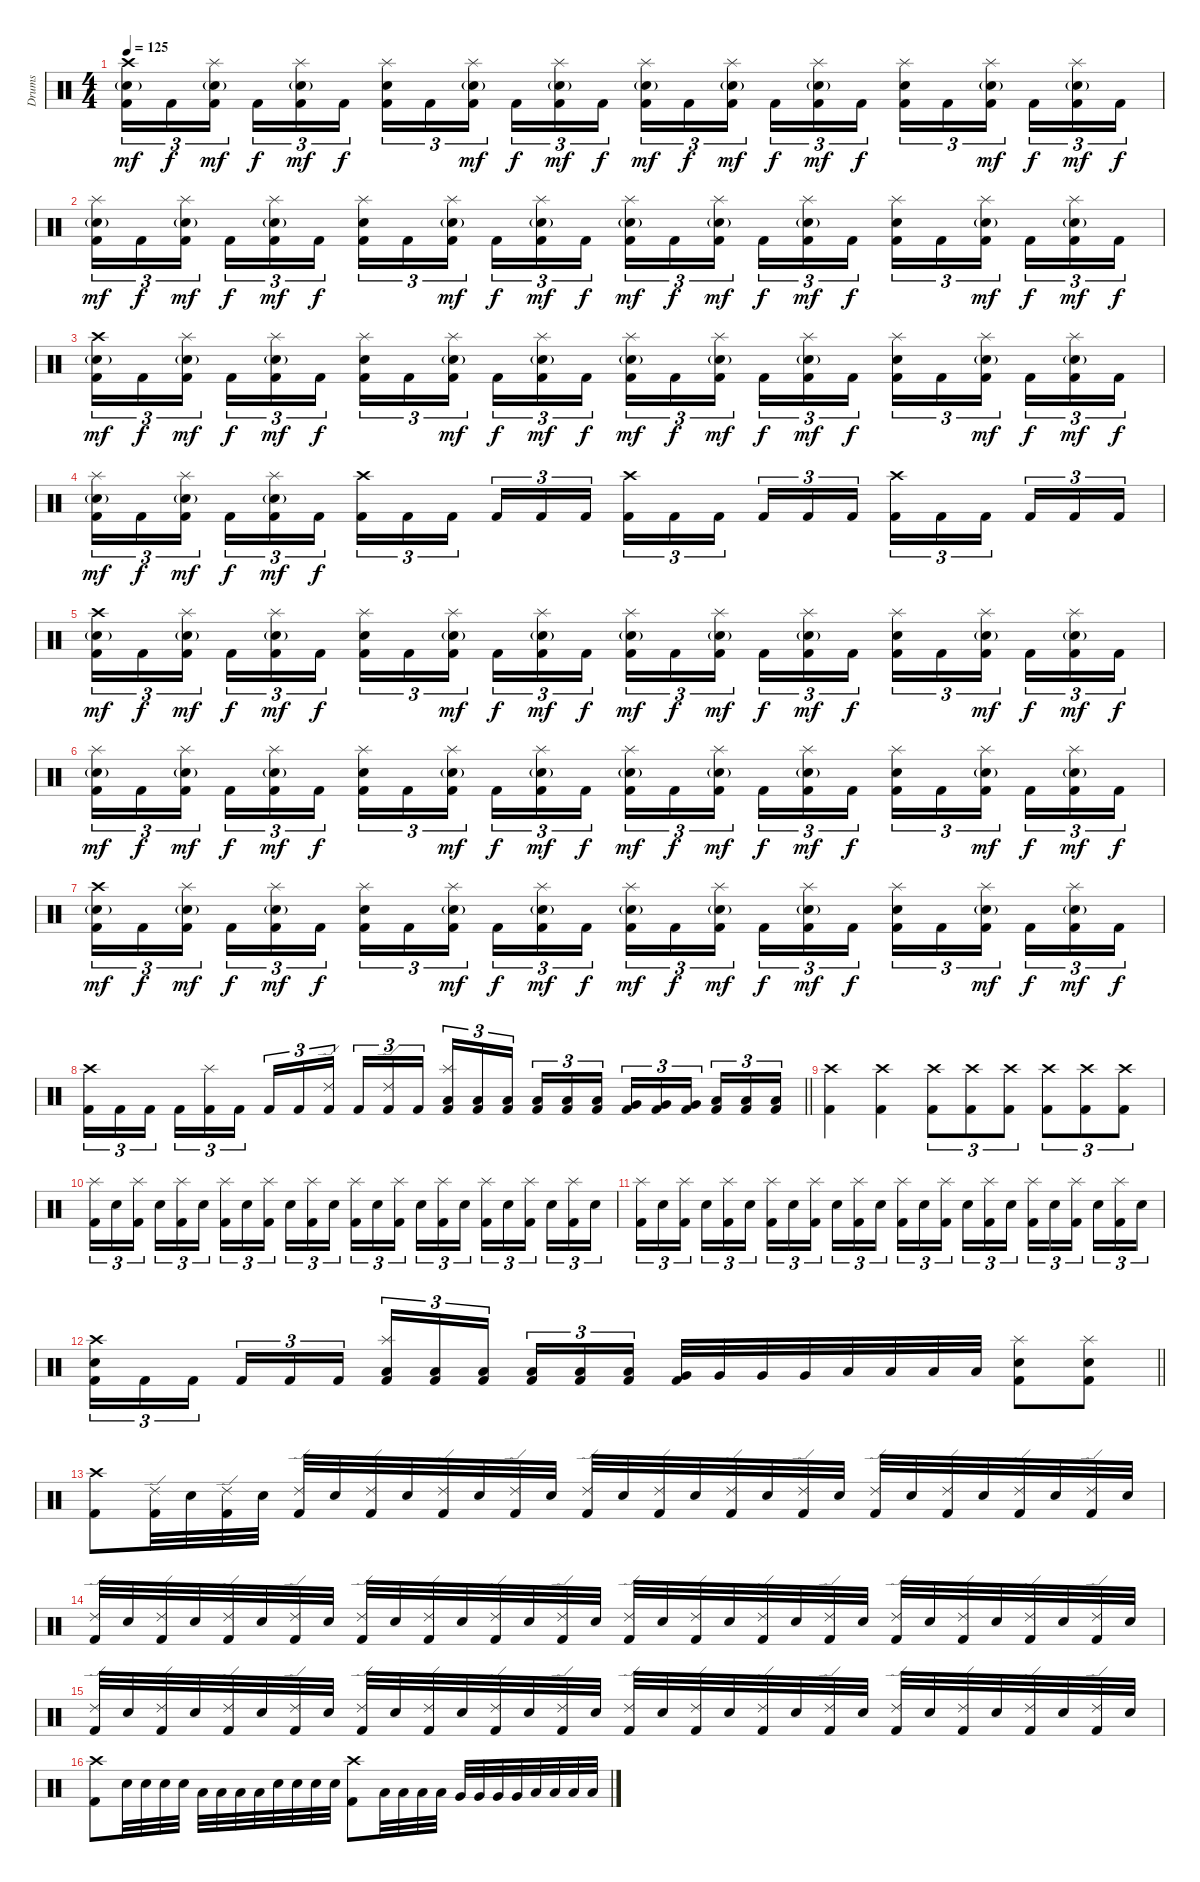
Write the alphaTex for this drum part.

\track ("Drums" "Drums") {instrument percussion}
\staff {score}
\articulation defaults
\ts (4 4)
\tempo 125
\clef neutral
\ks c
("Crash high (hit)" "Electric Snare (hit)"{g} "Kick (hit) 2").16{tu (3 2) dy mf} "Kick (hit) 2".16{tu (3 2) dy f} ("Splash (hit)" "Electric Snare (hit)"{g} "Kick (hit) 2").16{tu (3 2) dy mf beam splitsecondary} "Kick (hit) 2".16{tu (3 2) dy f} ("Splash (hit)" "Electric Snare (hit)"{g} "Kick (hit) 2").16{tu (3 2) dy mf} "Kick (hit) 2".16{tu (3 2) dy f} ("Splash (hit)" "Electric Snare (hit)" "Kick (hit) 2").16{tu (3 2)} "Kick (hit) 2".16{tu (3 2)} ("Splash (hit)" "Electric Snare (hit)"{g} "Kick (hit) 2").16{tu (3 2) dy mf beam splitsecondary} "Kick (hit) 2".16{tu (3 2) dy f} ("Splash (hit)" "Electric Snare (hit)"{g} "Kick (hit) 2").16{tu (3 2) dy mf} "Kick (hit) 2".16{tu (3 2) dy f} ("Splash (hit)" "Electric Snare (hit)"{g} "Kick (hit) 2").16{tu (3 2) dy mf} "Kick (hit) 2".16{tu (3 2) dy f} ("Splash (hit)" "Electric Snare (hit)"{g} "Kick (hit) 2").16{tu (3 2) dy mf beam splitsecondary} "Kick (hit) 2".16{tu (3 2) dy f} ("Splash (hit)" "Electric Snare (hit)"{g} "Kick (hit) 2").16{tu (3 2) dy mf} "Kick (hit) 2".16{tu (3 2) dy f} ("Splash (hit)" "Electric Snare (hit)" "Kick (hit) 2").16{tu (3 2)} "Kick (hit) 2".16{tu (3 2)} ("Splash (hit)" "Electric Snare (hit)"{g} "Kick (hit) 2").16{tu (3 2) dy mf beam splitsecondary} "Kick (hit) 2".16{tu (3 2) dy f} ("Splash (hit)" "Electric Snare (hit)"{g} "Kick (hit) 2").16{tu (3 2) dy mf} "Kick (hit) 2".16{tu (3 2) dy f} |
("Splash (hit)" "Electric Snare (hit)"{g} "Kick (hit) 2").16{tu (3 2) dy mf} "Kick (hit) 2".16{tu (3 2) dy f} ("Splash (hit)" "Electric Snare (hit)"{g} "Kick (hit) 2").16{tu (3 2) dy mf beam splitsecondary} "Kick (hit) 2".16{tu (3 2) dy f} ("Splash (hit)" "Electric Snare (hit)"{g} "Kick (hit) 2").16{tu (3 2) dy mf} "Kick (hit) 2".16{tu (3 2) dy f} ("Splash (hit)" "Electric Snare (hit)" "Kick (hit) 2").16{tu (3 2)} "Kick (hit) 2".16{tu (3 2)} ("Splash (hit)" "Electric Snare (hit)"{g} "Kick (hit) 2").16{tu (3 2) dy mf beam splitsecondary} "Kick (hit) 2".16{tu (3 2) dy f} ("Splash (hit)" "Electric Snare (hit)"{g} "Kick (hit) 2").16{tu (3 2) dy mf} "Kick (hit) 2".16{tu (3 2) dy f} ("Splash (hit)" "Electric Snare (hit)"{g} "Kick (hit) 2").16{tu (3 2) dy mf} "Kick (hit) 2".16{tu (3 2) dy f} ("Splash (hit)" "Electric Snare (hit)"{g} "Kick (hit) 2").16{tu (3 2) dy mf beam splitsecondary} "Kick (hit) 2".16{tu (3 2) dy f} ("Splash (hit)" "Electric Snare (hit)"{g} "Kick (hit) 2").16{tu (3 2) dy mf} "Kick (hit) 2".16{tu (3 2) dy f} ("Splash (hit)" "Electric Snare (hit)" "Kick (hit) 2").16{tu (3 2)} "Kick (hit) 2".16{tu (3 2)} ("Splash (hit)" "Electric Snare (hit)"{g} "Kick (hit) 2").16{tu (3 2) dy mf beam splitsecondary} "Kick (hit) 2".16{tu (3 2) dy f} ("Splash (hit)" "Electric Snare (hit)"{g} "Kick (hit) 2").16{tu (3 2) dy mf} "Kick (hit) 2".16{tu (3 2) dy f} |
("Crash high (hit)" "Electric Snare (hit)"{g} "Kick (hit) 2").16{tu (3 2) dy mf} "Kick (hit) 2".16{tu (3 2) dy f} ("Splash (hit)" "Electric Snare (hit)"{g} "Kick (hit) 2").16{tu (3 2) dy mf beam splitsecondary} "Kick (hit) 2".16{tu (3 2) dy f} ("Splash (hit)" "Electric Snare (hit)"{g} "Kick (hit) 2").16{tu (3 2) dy mf} "Kick (hit) 2".16{tu (3 2) dy f} ("Splash (hit)" "Electric Snare (hit)" "Kick (hit) 2").16{tu (3 2)} "Kick (hit) 2".16{tu (3 2)} ("Splash (hit)" "Electric Snare (hit)"{g} "Kick (hit) 2").16{tu (3 2) dy mf beam splitsecondary} "Kick (hit) 2".16{tu (3 2) dy f} ("Splash (hit)" "Electric Snare (hit)"{g} "Kick (hit) 2").16{tu (3 2) dy mf} "Kick (hit) 2".16{tu (3 2) dy f} ("Splash (hit)" "Electric Snare (hit)"{g} "Kick (hit) 2").16{tu (3 2) dy mf} "Kick (hit) 2".16{tu (3 2) dy f} ("Splash (hit)" "Electric Snare (hit)"{g} "Kick (hit) 2").16{tu (3 2) dy mf beam splitsecondary} "Kick (hit) 2".16{tu (3 2) dy f} ("Splash (hit)" "Electric Snare (hit)"{g} "Kick (hit) 2").16{tu (3 2) dy mf} "Kick (hit) 2".16{tu (3 2) dy f} ("Splash (hit)" "Electric Snare (hit)" "Kick (hit) 2").16{tu (3 2)} "Kick (hit) 2".16{tu (3 2)} ("Splash (hit)" "Electric Snare (hit)"{g} "Kick (hit) 2").16{tu (3 2) dy mf beam splitsecondary} "Kick (hit) 2".16{tu (3 2) dy f} ("Splash (hit)" "Electric Snare (hit)"{g} "Kick (hit) 2").16{tu (3 2) dy mf} "Kick (hit) 2".16{tu (3 2) dy f} |
("Splash (hit)" "Electric Snare (hit)"{g} "Kick (hit) 2").16{tu (3 2) dy mf} "Kick (hit) 2".16{tu (3 2) dy f} ("Splash (hit)" "Electric Snare (hit)"{g} "Kick (hit) 2").16{tu (3 2) dy mf beam splitsecondary} "Kick (hit) 2".16{tu (3 2) dy f} ("Splash (hit)" "Electric Snare (hit)"{g} "Kick (hit) 2").16{tu (3 2) dy mf} "Kick (hit) 2".16{tu (3 2) dy f} ("Crash high (hit)" "Kick (hit) 2").16{tu (3 2)} "Kick (hit) 2".16{tu (3 2)} "Kick (hit) 2".16{tu (3 2) beam splitsecondary} "Kick (hit) 2".16{tu (3 2)} "Kick (hit) 2".16{tu (3 2)} "Kick (hit) 2".16{tu (3 2)} ("Crash high (hit)" "Kick (hit) 2").16{tu (3 2)} "Kick (hit) 2".16{tu (3 2)} "Kick (hit) 2".16{tu (3 2) beam splitsecondary} "Kick (hit) 2".16{tu (3 2)} "Kick (hit) 2".16{tu (3 2)} "Kick (hit) 2".16{tu (3 2)} ("Crash high (hit)" "Kick (hit) 2").16{tu (3 2)} "Kick (hit) 2".16{tu (3 2)} "Kick (hit) 2".16{tu (3 2) beam splitsecondary} "Kick (hit) 2".16{tu (3 2)} "Kick (hit) 2".16{tu (3 2)} "Kick (hit) 2".16{tu (3 2)} |
("Crash high (hit)" "Electric Snare (hit)"{g} "Kick (hit) 2").16{tu (3 2) dy mf} "Kick (hit) 2".16{tu (3 2) dy f} ("Splash (hit)" "Electric Snare (hit)"{g} "Kick (hit) 2").16{tu (3 2) dy mf beam splitsecondary} "Kick (hit) 2".16{tu (3 2) dy f} ("Splash (hit)" "Electric Snare (hit)"{g} "Kick (hit) 2").16{tu (3 2) dy mf} "Kick (hit) 2".16{tu (3 2) dy f} ("Splash (hit)" "Electric Snare (hit)" "Kick (hit) 2").16{tu (3 2)} "Kick (hit) 2".16{tu (3 2)} ("Splash (hit)" "Electric Snare (hit)"{g} "Kick (hit) 2").16{tu (3 2) dy mf beam splitsecondary} "Kick (hit) 2".16{tu (3 2) dy f} ("Splash (hit)" "Electric Snare (hit)"{g} "Kick (hit) 2").16{tu (3 2) dy mf} "Kick (hit) 2".16{tu (3 2) dy f} ("Splash (hit)" "Electric Snare (hit)"{g} "Kick (hit) 2").16{tu (3 2) dy mf} "Kick (hit) 2".16{tu (3 2) dy f} ("Splash (hit)" "Electric Snare (hit)"{g} "Kick (hit) 2").16{tu (3 2) dy mf beam splitsecondary} "Kick (hit) 2".16{tu (3 2) dy f} ("Splash (hit)" "Electric Snare (hit)"{g} "Kick (hit) 2").16{tu (3 2) dy mf} "Kick (hit) 2".16{tu (3 2) dy f} ("Splash (hit)" "Electric Snare (hit)" "Kick (hit) 2").16{tu (3 2)} "Kick (hit) 2".16{tu (3 2)} ("Splash (hit)" "Electric Snare (hit)"{g} "Kick (hit) 2").16{tu (3 2) dy mf beam splitsecondary} "Kick (hit) 2".16{tu (3 2) dy f} ("Splash (hit)" "Electric Snare (hit)"{g} "Kick (hit) 2").16{tu (3 2) dy mf} "Kick (hit) 2".16{tu (3 2) dy f} |
("Splash (hit)" "Electric Snare (hit)"{g} "Kick (hit) 2").16{tu (3 2) dy mf} "Kick (hit) 2".16{tu (3 2) dy f} ("Splash (hit)" "Electric Snare (hit)"{g} "Kick (hit) 2").16{tu (3 2) dy mf beam splitsecondary} "Kick (hit) 2".16{tu (3 2) dy f} ("Splash (hit)" "Electric Snare (hit)"{g} "Kick (hit) 2").16{tu (3 2) dy mf} "Kick (hit) 2".16{tu (3 2) dy f} ("Splash (hit)" "Electric Snare (hit)" "Kick (hit) 2").16{tu (3 2)} "Kick (hit) 2".16{tu (3 2)} ("Splash (hit)" "Electric Snare (hit)"{g} "Kick (hit) 2").16{tu (3 2) dy mf beam splitsecondary} "Kick (hit) 2".16{tu (3 2) dy f} ("Splash (hit)" "Electric Snare (hit)"{g} "Kick (hit) 2").16{tu (3 2) dy mf} "Kick (hit) 2".16{tu (3 2) dy f} ("Splash (hit)" "Electric Snare (hit)"{g} "Kick (hit) 2").16{tu (3 2) dy mf} "Kick (hit) 2".16{tu (3 2) dy f} ("Splash (hit)" "Electric Snare (hit)"{g} "Kick (hit) 2").16{tu (3 2) dy mf beam splitsecondary} "Kick (hit) 2".16{tu (3 2) dy f} ("Splash (hit)" "Electric Snare (hit)"{g} "Kick (hit) 2").16{tu (3 2) dy mf} "Kick (hit) 2".16{tu (3 2) dy f} ("Splash (hit)" "Electric Snare (hit)" "Kick (hit) 2").16{tu (3 2)} "Kick (hit) 2".16{tu (3 2)} ("Splash (hit)" "Electric Snare (hit)"{g} "Kick (hit) 2").16{tu (3 2) dy mf beam splitsecondary} "Kick (hit) 2".16{tu (3 2) dy f} ("Splash (hit)" "Electric Snare (hit)"{g} "Kick (hit) 2").16{tu (3 2) dy mf} "Kick (hit) 2".16{tu (3 2) dy f} |
("Crash high (hit)" "Electric Snare (hit)"{g} "Kick (hit) 2").16{tu (3 2) dy mf} "Kick (hit) 2".16{tu (3 2) dy f} ("Splash (hit)" "Electric Snare (hit)"{g} "Kick (hit) 2").16{tu (3 2) dy mf beam splitsecondary} "Kick (hit) 2".16{tu (3 2) dy f} ("Splash (hit)" "Electric Snare (hit)"{g} "Kick (hit) 2").16{tu (3 2) dy mf} "Kick (hit) 2".16{tu (3 2) dy f} ("Splash (hit)" "Electric Snare (hit)" "Kick (hit) 2").16{tu (3 2)} "Kick (hit) 2".16{tu (3 2)} ("Splash (hit)" "Electric Snare (hit)"{g} "Kick (hit) 2").16{tu (3 2) dy mf beam splitsecondary} "Kick (hit) 2".16{tu (3 2) dy f} ("Splash (hit)" "Electric Snare (hit)"{g} "Kick (hit) 2").16{tu (3 2) dy mf} "Kick (hit) 2".16{tu (3 2) dy f} ("Splash (hit)" "Electric Snare (hit)"{g} "Kick (hit) 2").16{tu (3 2) dy mf} "Kick (hit) 2".16{tu (3 2) dy f} ("Splash (hit)" "Electric Snare (hit)"{g} "Kick (hit) 2").16{tu (3 2) dy mf beam splitsecondary} "Kick (hit) 2".16{tu (3 2) dy f} ("Splash (hit)" "Electric Snare (hit)"{g} "Kick (hit) 2").16{tu (3 2) dy mf} "Kick (hit) 2".16{tu (3 2) dy f} ("Splash (hit)" "Electric Snare (hit)" "Kick (hit) 2").16{tu (3 2)} "Kick (hit) 2".16{tu (3 2)} ("Splash (hit)" "Electric Snare (hit)"{g} "Kick (hit) 2").16{tu (3 2) dy mf beam splitsecondary} "Kick (hit) 2".16{tu (3 2) dy f} ("Splash (hit)" "Electric Snare (hit)"{g} "Kick (hit) 2").16{tu (3 2) dy mf} "Kick (hit) 2".16{tu (3 2) dy f} |
\barLineRight lightlight
("Crash high (hit)" "Kick (hit) 2").16{tu (3 2)} "Kick (hit) 2".16{tu (3 2)} "Kick (hit) 2".16{tu (3 2) beam splitsecondary} "Kick (hit) 2".16{tu (3 2)} ("Splash (hit)" "Kick (hit) 2").16{tu (3 2)} "Kick (hit) 2".16{tu (3 2)} "Kick (hit) 2".16{tu (3 2)} "Kick (hit) 2".16{tu (3 2)} ("Ride (edge) 2" "Kick (hit) 2").16{tu (3 2) beam splitsecondary} "Kick (hit) 2".16{tu (3 2)} ("Ride (edge) 2" "Kick (hit) 2").16{tu (3 2)} "Kick (hit) 2".16{tu (3 2)} ("Splash (hit)" "Low Tom (hit)" "Kick (hit) 2").16{tu (3 2)} ("Low Tom (hit)" "Kick (hit) 2").16{tu (3 2)} ("Low Tom (hit)" "Kick (hit) 2").16{tu (3 2) beam splitsecondary} ("Low Tom (hit)" "Kick (hit) 2").16{tu (3 2)} ("Low Tom (hit)" "Kick (hit) 2").16{tu (3 2)} ("Low Tom (hit)" "Kick (hit) 2").16{tu (3 2)} ("Very Low Tom (hit)" "Kick (hit) 2").16{tu (3 2)} ("Very Low Tom (hit)" "Kick (hit) 2").16{tu (3 2)} ("Very Low Tom (hit)" "Kick (hit) 2").16{tu (3 2) beam splitsecondary} ("Low Floor Tom (hit)" "Kick (hit) 2").16{tu (3 2)} ("Low Floor Tom (hit)" "Kick (hit) 2").16{tu (3 2)} ("Low Floor Tom (hit)" "Kick (hit) 2").16{tu (3 2)} |
("Crash high (hit)" "Kick (hit) 2").4 ("Crash high (hit)" "Kick (hit) 2").4 ("Crash high (hit)" "Kick (hit) 2").8{tu (3 2)} ("Crash high (hit)" "Kick (hit) 2").8{tu (3 2)} ("Crash high (hit)" "Kick (hit) 2").8{tu (3 2)} ("Crash high (hit)" "Kick (hit) 2").8{tu (3 2)} ("Crash high (hit)" "Kick (hit) 2").8{tu (3 2)} ("Crash high (hit)" "Kick (hit) 2").8{tu (3 2)} |
("Splash (hit)" "Kick (hit) 2").16{tu (3 2)} "Electric Snare (hit)".16{tu (3 2)} ("Splash (hit)" "Kick (hit) 2").16{tu (3 2) beam splitsecondary} "Electric Snare (hit)".16{tu (3 2)} ("Splash (hit)" "Kick (hit) 2").16{tu (3 2)} "Electric Snare (hit)".16{tu (3 2)} ("Splash (hit)" "Kick (hit) 2").16{tu (3 2)} "Electric Snare (hit)".16{tu (3 2)} ("Splash (hit)" "Kick (hit) 2").16{tu (3 2) beam splitsecondary} "Electric Snare (hit)".16{tu (3 2)} ("Splash (hit)" "Kick (hit) 2").16{tu (3 2)} "Electric Snare (hit)".16{tu (3 2)} ("Splash (hit)" "Kick (hit) 2").16{tu (3 2)} "Electric Snare (hit)".16{tu (3 2)} ("Splash (hit)" "Kick (hit) 2").16{tu (3 2) beam splitsecondary} "Electric Snare (hit)".16{tu (3 2)} ("Splash (hit)" "Kick (hit) 2").16{tu (3 2)} "Electric Snare (hit)".16{tu (3 2)} ("Splash (hit)" "Kick (hit) 2").16{tu (3 2)} "Electric Snare (hit)".16{tu (3 2)} ("Splash (hit)" "Kick (hit) 2").16{tu (3 2) beam splitsecondary} "Electric Snare (hit)".16{tu (3 2)} ("Splash (hit)" "Kick (hit) 2").16{tu (3 2)} "Electric Snare (hit)".16{tu (3 2)} |
("Splash (hit)" "Kick (hit) 2").16{tu (3 2)} "Electric Snare (hit)".16{tu (3 2)} ("Splash (hit)" "Kick (hit) 2").16{tu (3 2) beam splitsecondary} "Electric Snare (hit)".16{tu (3 2)} ("Splash (hit)" "Kick (hit) 2").16{tu (3 2)} "Electric Snare (hit)".16{tu (3 2)} ("Splash (hit)" "Kick (hit) 2").16{tu (3 2)} "Electric Snare (hit)".16{tu (3 2)} ("Splash (hit)" "Kick (hit) 2").16{tu (3 2) beam splitsecondary} "Electric Snare (hit)".16{tu (3 2)} ("Splash (hit)" "Kick (hit) 2").16{tu (3 2)} "Electric Snare (hit)".16{tu (3 2)} ("Splash (hit)" "Kick (hit) 2").16{tu (3 2)} "Electric Snare (hit)".16{tu (3 2)} ("Splash (hit)" "Kick (hit) 2").16{tu (3 2) beam splitsecondary} "Electric Snare (hit)".16{tu (3 2)} ("Splash (hit)" "Kick (hit) 2").16{tu (3 2)} "Electric Snare (hit)".16{tu (3 2)} ("Splash (hit)" "Kick (hit) 2").16{tu (3 2)} "Electric Snare (hit)".16{tu (3 2)} ("Splash (hit)" "Kick (hit) 2").16{tu (3 2) beam splitsecondary} "Electric Snare (hit)".16{tu (3 2)} ("Splash (hit)" "Kick (hit) 2").16{tu (3 2)} "Electric Snare (hit)".16{tu (3 2)} |
\barLineRight lightlight
("Crash high (hit)" "Electric Snare (hit)" "Kick (hit) 2").16{tu (3 2)} "Kick (hit) 2".16{tu (3 2)} "Kick (hit) 2".16{tu (3 2) beam splitsecondary} "Kick (hit) 2".16{tu (3 2)} "Kick (hit) 2".16{tu (3 2)} "Kick (hit) 2".16{tu (3 2)} ("Splash (hit)" "Low Tom (hit)" "Kick (hit) 2").16{tu (3 2)} ("Low Tom (hit)" "Kick (hit) 2").16{tu (3 2)} ("Low Tom (hit)" "Kick (hit) 2").16{tu (3 2) beam splitsecondary} ("Low Tom (hit)" "Kick (hit) 2").16{tu (3 2)} ("Low Tom (hit)" "Kick (hit) 2").16{tu (3 2)} ("Low Tom (hit)" "Kick (hit) 2").16{tu (3 2)} ("Very Low Tom (hit)" "Kick (hit) 2").32 "Very Low Tom (hit)".32 "Very Low Tom (hit)".32 "Very Low Tom (hit)".32 "Low Floor Tom (hit)".32 "Low Floor Tom (hit)".32 "Low Floor Tom (hit)".32 "Low Floor Tom (hit)".32 ("Splash (hit)" "Electric Snare (hit)" "Kick (hit) 2").8 ("Splash (hit)" "Electric Snare (hit)" "Kick (hit) 2").8 |
("Crash high (hit)" "Kick (hit) 2").8 ("Ride (edge) 2" "Kick (hit) 2").32 "Electric Snare (hit)".32 ("Ride (edge) 2" "Kick (hit) 2").32 "Electric Snare (hit)".32 ("Ride (edge) 2" "Kick (hit) 2").32 "Electric Snare (hit)".32 ("Ride (edge) 2" "Kick (hit) 2").32 "Electric Snare (hit)".32 ("Ride (edge) 2" "Kick (hit) 2").32 "Electric Snare (hit)".32 ("Ride (edge) 2" "Kick (hit) 2").32 "Electric Snare (hit)".32 ("Ride (edge) 2" "Kick (hit) 2").32 "Electric Snare (hit)".32 ("Ride (edge) 2" "Kick (hit) 2").32 "Electric Snare (hit)".32 ("Ride (edge) 2" "Kick (hit) 2").32 "Electric Snare (hit)".32 ("Ride (edge) 2" "Kick (hit) 2").32 "Electric Snare (hit)".32 ("Ride (edge) 2" "Kick (hit) 2").32 "Electric Snare (hit)".32 ("Ride (edge) 2" "Kick (hit) 2").32 "Electric Snare (hit)".32 ("Ride (edge) 2" "Kick (hit) 2").32 "Electric Snare (hit)".32 ("Ride (edge) 2" "Kick (hit) 2").32 "Electric Snare (hit)".32 |
("Ride (edge) 2" "Kick (hit) 2").32 "Electric Snare (hit)".32 ("Ride (edge) 2" "Kick (hit) 2").32 "Electric Snare (hit)".32 ("Ride (edge) 2" "Kick (hit) 2").32 "Electric Snare (hit)".32 ("Ride (edge) 2" "Kick (hit) 2").32 "Electric Snare (hit)".32 ("Ride (edge) 2" "Kick (hit) 2").32 "Electric Snare (hit)".32 ("Ride (edge) 2" "Kick (hit) 2").32 "Electric Snare (hit)".32 ("Ride (edge) 2" "Kick (hit) 2").32 "Electric Snare (hit)".32 ("Ride (edge) 2" "Kick (hit) 2").32 "Electric Snare (hit)".32 ("Ride (edge) 2" "Kick (hit) 2").32 "Electric Snare (hit)".32 ("Ride (edge) 2" "Kick (hit) 2").32 "Electric Snare (hit)".32 ("Ride (edge) 2" "Kick (hit) 2").32 "Electric Snare (hit)".32 ("Ride (edge) 2" "Kick (hit) 2").32 "Electric Snare (hit)".32 ("Ride (edge) 2" "Kick (hit) 2").32 "Electric Snare (hit)".32 ("Ride (edge) 2" "Kick (hit) 2").32 "Electric Snare (hit)".32 ("Ride (edge) 2" "Kick (hit) 2").32 "Electric Snare (hit)".32 ("Ride (edge) 2" "Kick (hit) 2").32 "Electric Snare (hit)".32 |
("Ride (edge) 2" "Kick (hit) 2").32 "Electric Snare (hit)".32 ("Ride (edge) 2" "Kick (hit) 2").32 "Electric Snare (hit)".32 ("Ride (edge) 2" "Kick (hit) 2").32 "Electric Snare (hit)".32 ("Ride (edge) 2" "Kick (hit) 2").32 "Electric Snare (hit)".32 ("Ride (edge) 2" "Kick (hit) 2").32 "Electric Snare (hit)".32 ("Ride (edge) 2" "Kick (hit) 2").32 "Electric Snare (hit)".32 ("Ride (edge) 2" "Kick (hit) 2").32 "Electric Snare (hit)".32 ("Ride (edge) 2" "Kick (hit) 2").32 "Electric Snare (hit)".32 ("Ride (edge) 2" "Kick (hit) 2").32 "Electric Snare (hit)".32 ("Ride (edge) 2" "Kick (hit) 2").32 "Electric Snare (hit)".32 ("Ride (edge) 2" "Kick (hit) 2").32 "Electric Snare (hit)".32 ("Ride (edge) 2" "Kick (hit) 2").32 "Electric Snare (hit)".32 ("Ride (edge) 2" "Kick (hit) 2").32 "Electric Snare (hit)".32 ("Ride (edge) 2" "Kick (hit) 2").32 "Electric Snare (hit)".32 ("Ride (edge) 2" "Kick (hit) 2").32 "Electric Snare (hit)".32 ("Ride (edge) 2" "Kick (hit) 2").32 "Electric Snare (hit)".32 |
("Crash high (hit)" "Kick (hit) 2").8 "Electric Snare (hit)".32 "Electric Snare (hit)".32 "Electric Snare (hit)".32 "Electric Snare (hit)".32 "Low Tom (hit)".32 "Low Tom (hit)".32 "Low Tom (hit)".32 "Low Tom (hit)".32 "Electric Snare (hit)".32 "Electric Snare (hit)".32 "Electric Snare (hit)".32 "Electric Snare (hit)".32 ("Crash high (hit)" "Kick (hit) 2").8 "Low Tom (hit)".32 "Low Tom (hit)".32 "Low Tom (hit)".32 "Low Tom (hit)".32 "Very Low Tom (hit)".32 "Very Low Tom (hit)".32 "Very Low Tom (hit)".32 "Very Low Tom (hit)".32 "Low Floor Tom (hit)".32 "Low Floor Tom (hit)".32 "Low Floor Tom (hit)".32 "Low Floor Tom (hit)".32
